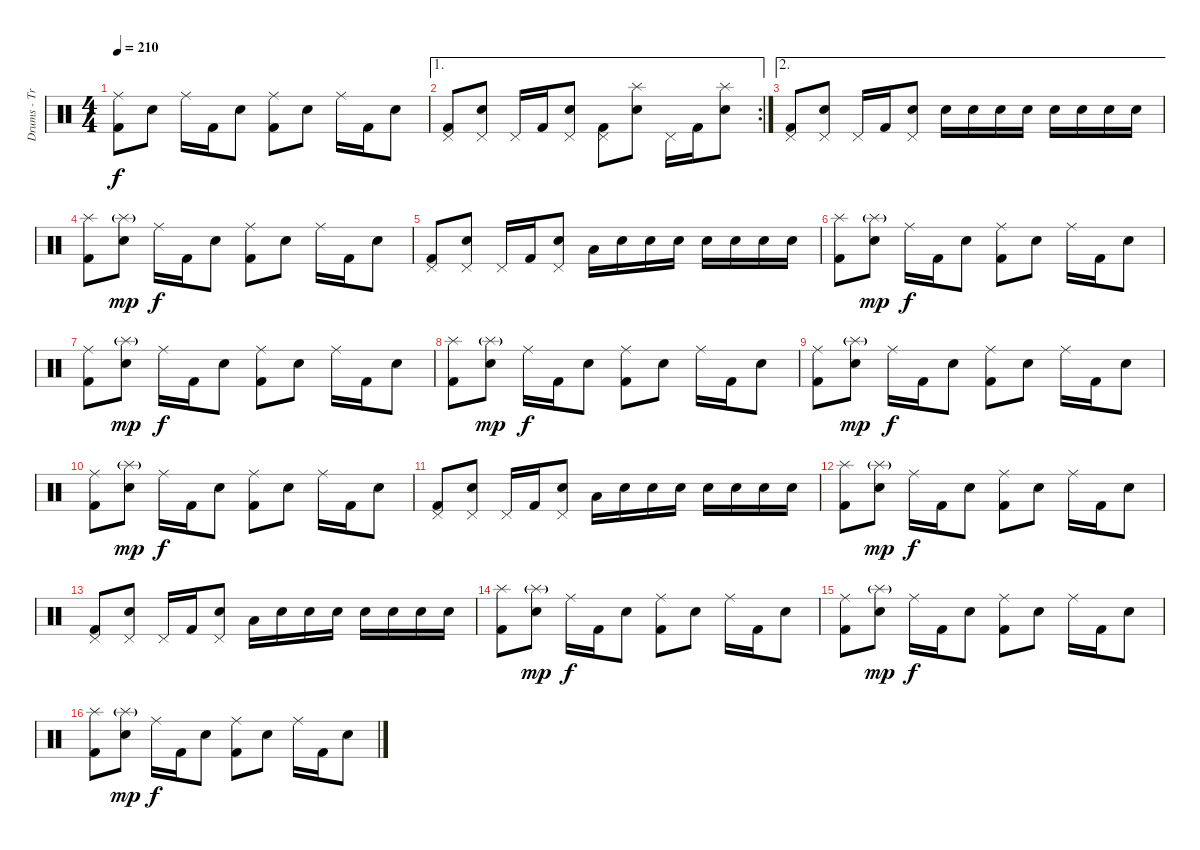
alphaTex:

\track ("Drums - Travis Barker" "Drums - Tr") {instrument percussion}
\staff {score}
\articulation defaults
\ts (4 4)
\tempo 210
\clef neutral
\ks c
("Ride (middle)" "Kick (hit) 2").8{dy f} "Electric Snare (hit)".8 "Ride (middle)".16 "Kick (hit) 2".16 "Electric Snare (hit)".8 ("Ride (middle)" "Kick (hit) 2").8 "Electric Snare (hit)".8 "Ride (middle)".16 "Kick (hit) 2".16 "Electric Snare (hit)".8 |
\ae 1
\rc 2
("Pedal Hi-Hat (hit)" "Kick (hit) 2").8 ("Pedal Hi-Hat (hit)" "Electric Snare (hit)").8 "Pedal Hi-Hat (hit)".16 "Kick (hit) 2".16 ("Pedal Hi-Hat (hit)" "Electric Snare (hit)").8 ("Pedal Hi-Hat (hit)" "Kick (hit) 2").8 ("Splash (hit)" "Electric Snare (hit)").8 "Pedal Hi-Hat (hit)".16 "Kick (hit) 2".16 ("Splash (hit)" "Electric Snare (hit)").8 |
\ae 2
("Pedal Hi-Hat (hit)" "Kick (hit) 2").8 ("Pedal Hi-Hat (hit)" "Electric Snare (hit)").8 "Pedal Hi-Hat (hit)".16 "Kick (hit) 2".16 ("Pedal Hi-Hat (hit)" "Electric Snare (hit)").8 "Electric Snare (hit)".16 "Electric Snare (hit)".16 "Electric Snare (hit)".16 "Electric Snare (hit)".16 "Electric Snare (hit)".16 "Electric Snare (hit)".16 "Electric Snare (hit)".16 "Electric Snare (hit)".16 |
("Splash (hit)" "Kick (hit) 2").8 ("Splash (hit)"{g} "Electric Snare (hit)").8{dy mp} "Ride (middle)".16{dy f} "Kick (hit) 2".16 "Electric Snare (hit)".8 ("Ride (middle)" "Kick (hit) 2").8 "Electric Snare (hit)".8 "Ride (middle)".16 "Kick (hit) 2".16 "Electric Snare (hit)".8 |
("Pedal Hi-Hat (hit)" "Kick (hit) 2").8 ("Pedal Hi-Hat (hit)" "Electric Snare (hit)").8 "Pedal Hi-Hat (hit)".16 "Kick (hit) 2".16 ("Pedal Hi-Hat (hit)" "Electric Snare (hit)").8 "Low Tom (hit)".16 "Electric Snare (hit)".16 "Electric Snare (hit)".16 "Electric Snare (hit)".16 "Electric Snare (hit)".16 "Electric Snare (hit)".16 "Electric Snare (hit)".16 "Electric Snare (hit)".16 |
("Splash (hit)" "Kick (hit) 2").8 ("Splash (hit)"{g} "Electric Snare (hit)").8{dy mp} "Ride (middle)".16{dy f} "Kick (hit) 2".16 "Electric Snare (hit)".8 ("Ride (middle)" "Kick (hit) 2").8 "Electric Snare (hit)".8 "Ride (middle)".16 "Kick (hit) 2".16 "Electric Snare (hit)".8 |
("Ride (middle)" "Kick (hit) 2").8 ("Splash (hit)"{g} "Electric Snare (hit)").8{dy mp} "Ride (middle)".16{dy f} "Kick (hit) 2".16 "Electric Snare (hit)".8 ("Ride (middle)" "Kick (hit) 2").8 "Electric Snare (hit)".8 "Ride (middle)".16 "Kick (hit) 2".16 "Electric Snare (hit)".8 |
("Splash (hit)" "Kick (hit) 2").8 ("Splash (hit)"{g} "Electric Snare (hit)").8{dy mp} "Ride (middle)".16{dy f} "Kick (hit) 2".16 "Electric Snare (hit)".8 ("Ride (middle)" "Kick (hit) 2").8 "Electric Snare (hit)".8 "Ride (middle)".16 "Kick (hit) 2".16 "Electric Snare (hit)".8 |
("Ride (middle)" "Kick (hit) 2").8 ("Splash (hit)"{g} "Electric Snare (hit)").8{dy mp} "Ride (middle)".16{dy f} "Kick (hit) 2".16 "Electric Snare (hit)".8 ("Ride (middle)" "Kick (hit) 2").8 "Electric Snare (hit)".8 "Ride (middle)".16 "Kick (hit) 2".16 "Electric Snare (hit)".8 |
("Ride (middle)" "Kick (hit) 2").8 ("Splash (hit)"{g} "Electric Snare (hit)").8{dy mp} "Ride (middle)".16{dy f} "Kick (hit) 2".16 "Electric Snare (hit)".8 ("Ride (middle)" "Kick (hit) 2").8 "Electric Snare (hit)".8 "Ride (middle)".16 "Kick (hit) 2".16 "Electric Snare (hit)".8 |
("Pedal Hi-Hat (hit)" "Kick (hit) 2").8 ("Pedal Hi-Hat (hit)" "Electric Snare (hit)").8 "Pedal Hi-Hat (hit)".16 "Kick (hit) 2".16 ("Pedal Hi-Hat (hit)" "Electric Snare (hit)").8 "Low Tom (hit)".16 "Electric Snare (hit)".16 "Electric Snare (hit)".16 "Electric Snare (hit)".16 "Electric Snare (hit)".16 "Electric Snare (hit)".16 "Electric Snare (hit)".16 "Electric Snare (hit)".16 |
("Splash (hit)" "Kick (hit) 2").8 ("Splash (hit)"{g} "Electric Snare (hit)").8{dy mp} "Ride (middle)".16{dy f} "Kick (hit) 2".16 "Electric Snare (hit)".8 ("Ride (middle)" "Kick (hit) 2").8 "Electric Snare (hit)".8 "Ride (middle)".16 "Kick (hit) 2".16 "Electric Snare (hit)".8 |
("Pedal Hi-Hat (hit)" "Kick (hit) 2").8 ("Pedal Hi-Hat (hit)" "Electric Snare (hit)").8 "Pedal Hi-Hat (hit)".16 "Kick (hit) 2".16 ("Pedal Hi-Hat (hit)" "Electric Snare (hit)").8 "Low Tom (hit)".16 "Electric Snare (hit)".16 "Electric Snare (hit)".16 "Electric Snare (hit)".16 "Electric Snare (hit)".16 "Electric Snare (hit)".16 "Electric Snare (hit)".16 "Electric Snare (hit)".16 |
("Splash (hit)" "Kick (hit) 2").8 ("Splash (hit)"{g} "Electric Snare (hit)").8{dy mp} "Ride (middle)".16{dy f} "Kick (hit) 2".16 "Electric Snare (hit)".8 ("Ride (middle)" "Kick (hit) 2").8 "Electric Snare (hit)".8 "Ride (middle)".16 "Kick (hit) 2".16 "Electric Snare (hit)".8 |
("Ride (middle)" "Kick (hit) 2").8 ("Splash (hit)"{g} "Electric Snare (hit)").8{dy mp} "Ride (middle)".16{dy f} "Kick (hit) 2".16 "Electric Snare (hit)".8 ("Ride (middle)" "Kick (hit) 2").8 "Electric Snare (hit)".8 "Ride (middle)".16 "Kick (hit) 2".16 "Electric Snare (hit)".8 |
("Splash (hit)" "Kick (hit) 2").8 ("Splash (hit)"{g} "Electric Snare (hit)").8{dy mp} "Ride (middle)".16{dy f} "Kick (hit) 2".16 "Electric Snare (hit)".8 ("Ride (middle)" "Kick (hit) 2").8 "Electric Snare (hit)".8 "Ride (middle)".16 "Kick (hit) 2".16 "Electric Snare (hit)".8
